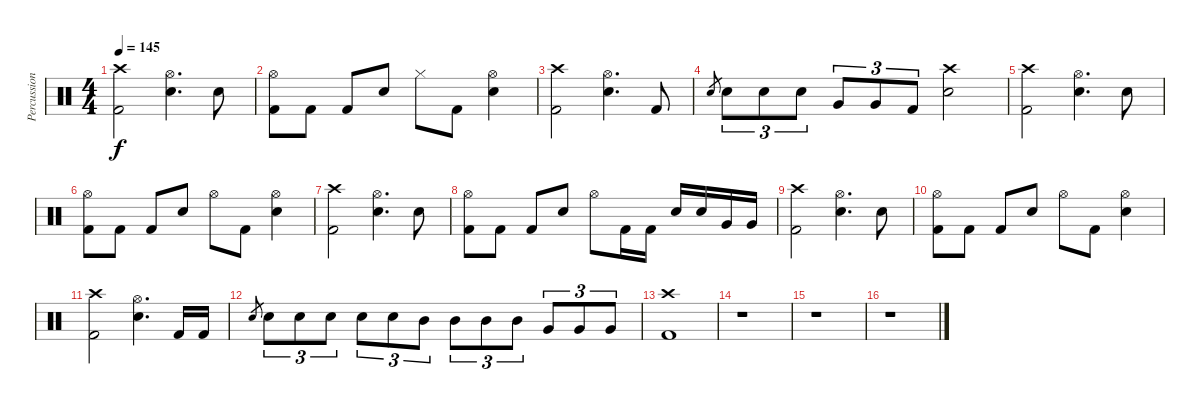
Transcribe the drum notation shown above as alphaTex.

\track ("Percussion" "Percussion") {instrument percussion}
\staff {score}
\articulation defaults
\ts (4 4)
\tempo 145
\clef neutral
\ks c
("Crash high (hit)" "Kick (hit) 2").2{dy f} ("Hi-Hat (open)" "Snare (hit) 2").4{d} "Snare (hit) 2".8 |
("Hi-Hat (open)" "Kick (hit) 2").8 "Kick (hit) 2".8 "Kick (hit) 2".8 "Snare (hit) 2".8 "Hi-Hat (closed)".8 "Kick (hit) 2".8 ("Hi-Hat (open)" "Snare (hit) 2").4 |
("Crash high (hit)" "Kick (hit) 2").2 ("Hi-Hat (open)" "Snare (hit) 2").4{d} "Kick (hit) 2".8 |
"Snare (hit) 2".8{gr} "Snare (hit) 2".8{tu (3 2)} "Snare (hit) 2".8{tu (3 2)} "Snare (hit) 2".8{tu (3 2)} "Very Low Tom (hit)".8{tu (3 2)} "Very Low Tom (hit)".8{tu (3 2)} "Kick (hit) 2".8{tu (3 2)} ("Crash high (hit)" "Snare (hit) 2").2 |
("Crash high (hit)" "Kick (hit) 2").2 ("Hi-Hat (open)" "Snare (hit) 2").4{d} "Snare (hit) 2".8 |
("Hi-Hat (open)" "Kick (hit) 2").8 "Kick (hit) 2".8 "Kick (hit) 2".8 "Snare (hit) 2".8 "Hi-Hat (open)".8 "Kick (hit) 2".8 ("Hi-Hat (open)" "Snare (hit) 2").4 |
("Crash high (hit)" "Kick (hit) 2").2 ("Hi-Hat (open)" "Snare (hit) 2").4{d} "Snare (hit) 2".8 |
("Hi-Hat (open)" "Kick (hit) 2").8 "Kick (hit) 2".8 "Kick (hit) 2".8 "Snare (hit) 2".8 "Hi-Hat (open)".8 "Kick (hit) 2".16 "Kick (hit) 2".16 "Snare (hit) 2".16 "Snare (hit) 2".16 "Very Low Tom (hit)".16 "Very Low Tom (hit)".16 |
("Crash high (hit)" "Kick (hit) 2").2 ("Hi-Hat (open)" "Snare (hit) 2").4{d} "Snare (hit) 2".8 |
("Hi-Hat (open)" "Kick (hit) 2").8 "Kick (hit) 2".8 "Kick (hit) 2".8 "Snare (hit) 2".8 "Hi-Hat (open)".8 "Kick (hit) 2".8 ("Hi-Hat (open)" "Snare (hit) 2").4 |
("Crash high (hit)" "Kick (hit) 2").2 ("Hi-Hat (open)" "Snare (hit) 2").4{d} "Kick (hit) 2".16 "Kick (hit) 2".16 |
"Snare (hit) 2".8{gr} "Snare (hit) 2".8{tu (3 2)} "Snare (hit) 2".8{tu (3 2)} "Snare (hit) 2".8{tu (3 2)} "Snare (hit) 2".8{tu (3 2)} "Snare (hit) 2".8{tu (3 2)} "Mid Tom (hit)".8{tu (3 2)} "Mid Tom (hit)".8{tu (3 2)} "Mid Tom (hit)".8{tu (3 2)} "Mid Tom (hit)".8{tu (3 2)} "Very Low Tom (hit)".8{tu (3 2)} "Very Low Tom (hit)".8{tu (3 2)} "Very Low Tom (hit)".8{tu (3 2)} |
("Crash high (hit)" "Kick (hit) 2").1 |
r.1 |
r.1 |
r.1
